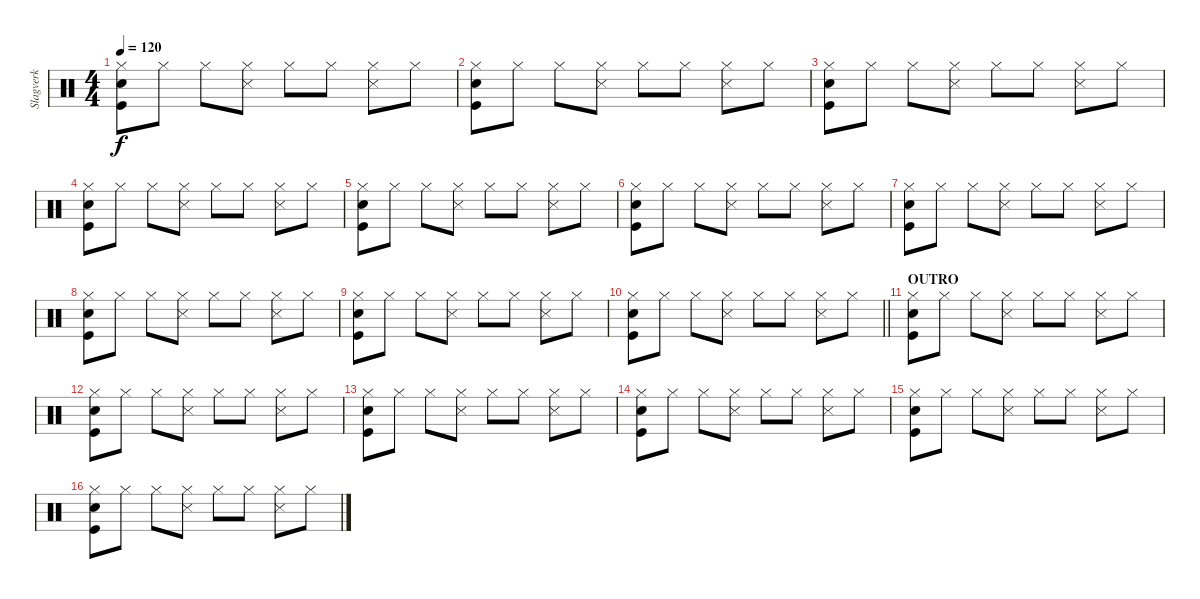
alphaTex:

\track ("Slagverk" "Slagverk") {instrument percussion}
\staff {score}
\articulation defaults
\ts (4 4)
\tempo 120
\clef neutral
\ks aminor
("Hi-Hat (closed)" "Snare (hit) 2" "Kick (hit)").8{dy f} "Hi-Hat (closed)".8 "Hi-Hat (closed)".8 ("Hi-Hat (closed)" "Snare (side stick) 3").8 "Hi-Hat (closed)".8 "Hi-Hat (closed)".8 ("Hi-Hat (closed)" "Snare (side stick) 3").8 "Hi-Hat (closed)".8 |
("Hi-Hat (closed)" "Snare (hit) 2" "Kick (hit)").8 "Hi-Hat (closed)".8 "Hi-Hat (closed)".8 ("Hi-Hat (closed)" "Snare (side stick) 3").8 "Hi-Hat (closed)".8 "Hi-Hat (closed)".8 ("Hi-Hat (closed)" "Snare (side stick) 3").8 "Hi-Hat (closed)".8 |
("Hi-Hat (closed)" "Snare (hit) 2" "Kick (hit)").8 "Hi-Hat (closed)".8 "Hi-Hat (closed)".8 ("Hi-Hat (closed)" "Snare (side stick) 3").8 "Hi-Hat (closed)".8 "Hi-Hat (closed)".8 ("Hi-Hat (closed)" "Snare (side stick) 3").8 "Hi-Hat (closed)".8 |
("Hi-Hat (closed)" "Snare (hit) 2" "Kick (hit)").8 "Hi-Hat (closed)".8 "Hi-Hat (closed)".8 ("Hi-Hat (closed)" "Snare (side stick) 3").8 "Hi-Hat (closed)".8 "Hi-Hat (closed)".8 ("Hi-Hat (closed)" "Snare (side stick) 3").8 "Hi-Hat (closed)".8 |
("Hi-Hat (closed)" "Snare (hit) 2" "Kick (hit)").8 "Hi-Hat (closed)".8 "Hi-Hat (closed)".8 ("Hi-Hat (closed)" "Snare (side stick) 3").8 "Hi-Hat (closed)".8 "Hi-Hat (closed)".8 ("Hi-Hat (closed)" "Snare (side stick) 3").8 "Hi-Hat (closed)".8 |
("Hi-Hat (closed)" "Snare (hit) 2" "Kick (hit)").8 "Hi-Hat (closed)".8 "Hi-Hat (closed)".8 ("Hi-Hat (closed)" "Snare (side stick) 3").8 "Hi-Hat (closed)".8 "Hi-Hat (closed)".8 ("Hi-Hat (closed)" "Snare (side stick) 3").8 "Hi-Hat (closed)".8 |
("Hi-Hat (closed)" "Snare (hit) 2" "Kick (hit)").8 "Hi-Hat (closed)".8 "Hi-Hat (closed)".8 ("Hi-Hat (closed)" "Snare (side stick) 3").8 "Hi-Hat (closed)".8 "Hi-Hat (closed)".8 ("Hi-Hat (closed)" "Snare (side stick) 3").8 "Hi-Hat (closed)".8 |
("Hi-Hat (closed)" "Snare (hit) 2" "Kick (hit)").8 "Hi-Hat (closed)".8 "Hi-Hat (closed)".8 ("Hi-Hat (closed)" "Snare (side stick) 3").8 "Hi-Hat (closed)".8 "Hi-Hat (closed)".8 ("Hi-Hat (closed)" "Snare (side stick) 3").8 "Hi-Hat (closed)".8 |
("Hi-Hat (closed)" "Snare (hit) 2" "Kick (hit)").8 "Hi-Hat (closed)".8 "Hi-Hat (closed)".8 ("Hi-Hat (closed)" "Snare (side stick) 3").8 "Hi-Hat (closed)".8 "Hi-Hat (closed)".8 ("Hi-Hat (closed)" "Snare (side stick) 3").8 "Hi-Hat (closed)".8 |
\barLineRight lightlight
("Hi-Hat (closed)" "Snare (hit) 2" "Kick (hit)").8 "Hi-Hat (closed)".8 "Hi-Hat (closed)".8 ("Hi-Hat (closed)" "Snare (side stick) 3").8 "Hi-Hat (closed)".8 "Hi-Hat (closed)".8 ("Hi-Hat (closed)" "Snare (side stick) 3").8 "Hi-Hat (closed)".8 |
\section ("" "OUTRO")
("Hi-Hat (closed)" "Snare (hit) 2" "Kick (hit)").8 "Hi-Hat (closed)".8 "Hi-Hat (closed)".8 ("Hi-Hat (closed)" "Snare (side stick) 3").8 "Hi-Hat (closed)".8 "Hi-Hat (closed)".8 ("Hi-Hat (closed)" "Snare (side stick) 3").8 "Hi-Hat (closed)".8 |
("Hi-Hat (closed)" "Snare (hit) 2" "Kick (hit)").8 "Hi-Hat (closed)".8 "Hi-Hat (closed)".8 ("Hi-Hat (closed)" "Snare (side stick) 3").8 "Hi-Hat (closed)".8 "Hi-Hat (closed)".8 ("Hi-Hat (closed)" "Snare (side stick) 3").8 "Hi-Hat (closed)".8 |
("Hi-Hat (closed)" "Snare (hit) 2" "Kick (hit)").8 "Hi-Hat (closed)".8 "Hi-Hat (closed)".8 ("Hi-Hat (closed)" "Snare (side stick) 3").8 "Hi-Hat (closed)".8 "Hi-Hat (closed)".8 ("Hi-Hat (closed)" "Snare (side stick) 3").8 "Hi-Hat (closed)".8 |
("Hi-Hat (closed)" "Snare (hit) 2" "Kick (hit)").8 "Hi-Hat (closed)".8 "Hi-Hat (closed)".8 ("Hi-Hat (closed)" "Snare (side stick) 3").8 "Hi-Hat (closed)".8 "Hi-Hat (closed)".8 ("Hi-Hat (closed)" "Snare (side stick) 3").8 "Hi-Hat (closed)".8 |
("Hi-Hat (closed)" "Snare (hit) 2" "Kick (hit)").8 "Hi-Hat (closed)".8 "Hi-Hat (closed)".8 ("Hi-Hat (closed)" "Snare (side stick) 3").8 "Hi-Hat (closed)".8 "Hi-Hat (closed)".8 ("Hi-Hat (closed)" "Snare (side stick) 3").8 "Hi-Hat (closed)".8 |
("Hi-Hat (closed)" "Snare (hit) 2" "Kick (hit)").8 "Hi-Hat (closed)".8 "Hi-Hat (closed)".8 ("Hi-Hat (closed)" "Snare (side stick) 3").8 "Hi-Hat (closed)".8 "Hi-Hat (closed)".8 ("Hi-Hat (closed)" "Snare (side stick) 3").8 "Hi-Hat (closed)".8
